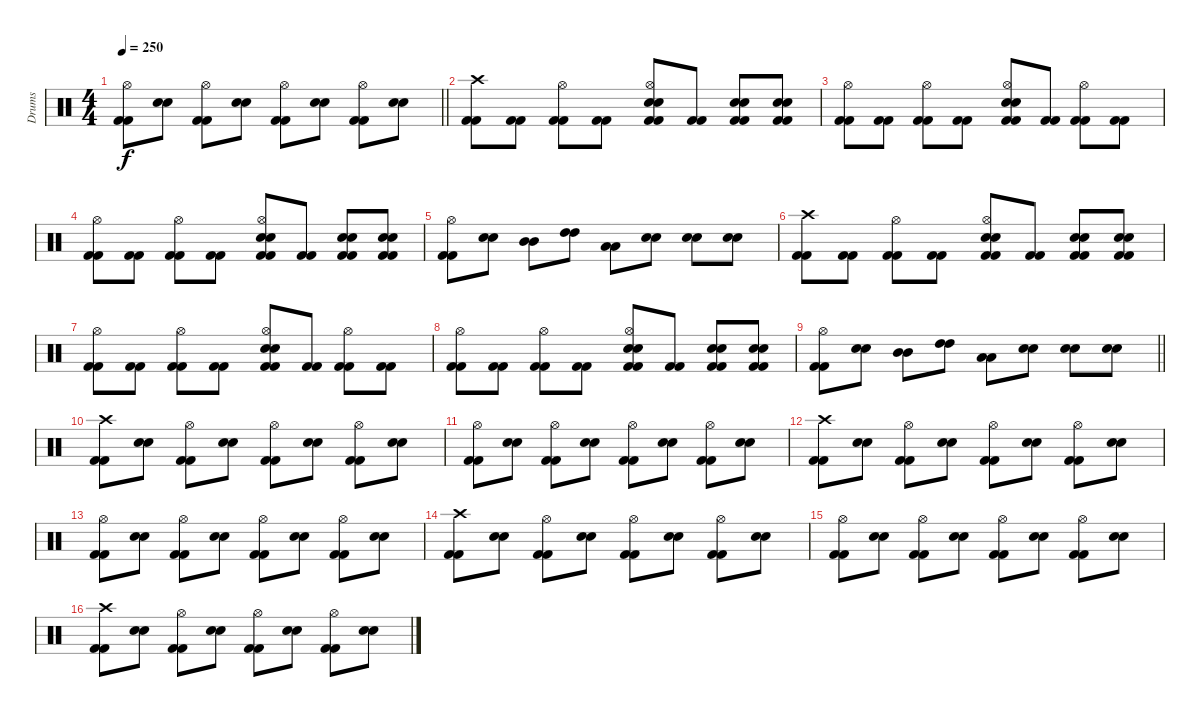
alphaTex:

\track ("Drums" "Drums") {instrument percussion}
\staff {score}
\articulation defaults
\ts (4 4)
\tempo 250
\clef neutral
\barLineRight lightlight
\ks c
("Kick (hit) 2" "Kick (hit) 2" "Hi-Hat (open)").8{dy f} ("Electric Snare (hit)" "Electric Snare (hit)").8 ("Kick (hit) 2" "Kick (hit) 2" "Hi-Hat (open)").8 ("Electric Snare (hit)" "Electric Snare (hit)").8 ("Kick (hit) 2" "Kick (hit) 2" "Hi-Hat (open)").8 ("Electric Snare (hit)" "Electric Snare (hit)").8 ("Kick (hit) 2" "Kick (hit) 2" "Hi-Hat (open)").8 ("Electric Snare (hit)" "Electric Snare (hit)").8 |
("Kick (hit) 2" "Kick (hit) 2" "Crash high (hit)").8 ("Kick (hit) 2" "Kick (hit) 2").8 ("Kick (hit) 2" "Kick (hit) 2" "Hi-Hat (open)").8 ("Kick (hit) 2" "Kick (hit) 2").8 ("Kick (hit) 2" "Kick (hit) 2" "Electric Snare (hit)" "Electric Snare (hit)" "Hi-Hat (open)").8 ("Kick (hit) 2" "Kick (hit) 2").8 ("Kick (hit) 2" "Kick (hit) 2" "Electric Snare (hit)" "Electric Snare (hit)").8 ("Kick (hit) 2" "Kick (hit) 2" "Electric Snare (hit)" "Electric Snare (hit)").8 |
("Kick (hit) 2" "Kick (hit) 2" "Hi-Hat (open)").8 ("Kick (hit) 2" "Kick (hit) 2").8 ("Kick (hit) 2" "Kick (hit) 2" "Hi-Hat (open)").8 ("Kick (hit) 2" "Kick (hit) 2").8 ("Kick (hit) 2" "Kick (hit) 2" "Electric Snare (hit)" "Electric Snare (hit)" "Hi-Hat (open)").8 ("Kick (hit) 2" "Kick (hit) 2").8 ("Kick (hit) 2" "Kick (hit) 2" "Hi-Hat (open)").8 ("Kick (hit) 2" "Kick (hit) 2").8 |
("Kick (hit) 2" "Kick (hit) 2" "Hi-Hat (open)").8 ("Kick (hit) 2" "Kick (hit) 2").8 ("Kick (hit) 2" "Kick (hit) 2" "Hi-Hat (open)").8 ("Kick (hit) 2" "Kick (hit) 2").8 ("Kick (hit) 2" "Kick (hit) 2" "Electric Snare (hit)" "Electric Snare (hit)" "Hi-Hat (open)").8 ("Kick (hit) 2" "Kick (hit) 2").8 ("Kick (hit) 2" "Kick (hit) 2" "Electric Snare (hit)" "Electric Snare (hit)").8 ("Kick (hit) 2" "Kick (hit) 2" "Electric Snare (hit)" "Electric Snare (hit)").8 |
("Kick (hit) 2" "Kick (hit) 2" "Hi-Hat (open)").8 ("Electric Snare (hit)" "Electric Snare (hit)").8 ("Mid Tom (hit)" "Mid Tom (hit)").8 ("High Tom (hit)" "High Tom (hit)").8 ("Low Floor Tom (hit)" "Low Floor Tom (hit)").8 ("Electric Snare (hit)" "Electric Snare (hit)").8 ("Electric Snare (hit)" "Electric Snare (hit)").8 ("Electric Snare (hit)" "Electric Snare (hit)").8 |
("Kick (hit) 2" "Kick (hit) 2" "Crash high (hit)").8 ("Kick (hit) 2" "Kick (hit) 2").8 ("Kick (hit) 2" "Kick (hit) 2" "Hi-Hat (open)").8 ("Kick (hit) 2" "Kick (hit) 2").8 ("Kick (hit) 2" "Kick (hit) 2" "Electric Snare (hit)" "Electric Snare (hit)" "Hi-Hat (open)").8 ("Kick (hit) 2" "Kick (hit) 2").8 ("Kick (hit) 2" "Kick (hit) 2" "Electric Snare (hit)" "Electric Snare (hit)").8 ("Kick (hit) 2" "Kick (hit) 2" "Electric Snare (hit)" "Electric Snare (hit)").8 |
("Kick (hit) 2" "Kick (hit) 2" "Hi-Hat (open)").8 ("Kick (hit) 2" "Kick (hit) 2").8 ("Kick (hit) 2" "Kick (hit) 2" "Hi-Hat (open)").8 ("Kick (hit) 2" "Kick (hit) 2").8 ("Kick (hit) 2" "Kick (hit) 2" "Electric Snare (hit)" "Electric Snare (hit)" "Hi-Hat (open)").8 ("Kick (hit) 2" "Kick (hit) 2").8 ("Kick (hit) 2" "Kick (hit) 2" "Hi-Hat (open)").8 ("Kick (hit) 2" "Kick (hit) 2").8 |
("Kick (hit) 2" "Kick (hit) 2" "Hi-Hat (open)").8 ("Kick (hit) 2" "Kick (hit) 2").8 ("Kick (hit) 2" "Kick (hit) 2" "Hi-Hat (open)").8 ("Kick (hit) 2" "Kick (hit) 2").8 ("Kick (hit) 2" "Kick (hit) 2" "Electric Snare (hit)" "Electric Snare (hit)" "Hi-Hat (open)").8 ("Kick (hit) 2" "Kick (hit) 2").8 ("Kick (hit) 2" "Kick (hit) 2" "Electric Snare (hit)" "Electric Snare (hit)").8 ("Kick (hit) 2" "Kick (hit) 2" "Electric Snare (hit)" "Electric Snare (hit)").8 |
\barLineRight lightlight
("Kick (hit) 2" "Kick (hit) 2" "Hi-Hat (open)").8 ("Electric Snare (hit)" "Electric Snare (hit)").8 ("Mid Tom (hit)" "Mid Tom (hit)").8 ("High Tom (hit)" "High Tom (hit)").8 ("Low Floor Tom (hit)" "Low Floor Tom (hit)").8 ("Electric Snare (hit)" "Electric Snare (hit)").8 ("Electric Snare (hit)" "Electric Snare (hit)").8 ("Electric Snare (hit)" "Electric Snare (hit)").8 |
("Kick (hit) 2" "Kick (hit) 2" "Crash high (hit)").8 ("Electric Snare (hit)" "Electric Snare (hit)").8 ("Kick (hit) 2" "Kick (hit) 2" "Hi-Hat (open)").8 ("Electric Snare (hit)" "Electric Snare (hit)").8 ("Kick (hit) 2" "Kick (hit) 2" "Hi-Hat (open)").8 ("Electric Snare (hit)" "Electric Snare (hit)").8 ("Kick (hit) 2" "Kick (hit) 2" "Hi-Hat (open)").8 ("Electric Snare (hit)" "Electric Snare (hit)").8 |
("Kick (hit) 2" "Kick (hit) 2" "Hi-Hat (open)").8 ("Electric Snare (hit)" "Electric Snare (hit)").8 ("Kick (hit) 2" "Kick (hit) 2" "Hi-Hat (open)").8 ("Electric Snare (hit)" "Electric Snare (hit)").8 ("Kick (hit) 2" "Kick (hit) 2" "Hi-Hat (open)").8 ("Electric Snare (hit)" "Electric Snare (hit)").8 ("Kick (hit) 2" "Kick (hit) 2" "Hi-Hat (open)").8 ("Electric Snare (hit)" "Electric Snare (hit)").8 |
("Kick (hit) 2" "Kick (hit) 2" "Crash high (hit)").8 ("Electric Snare (hit)" "Electric Snare (hit)").8 ("Kick (hit) 2" "Kick (hit) 2" "Hi-Hat (open)").8 ("Electric Snare (hit)" "Electric Snare (hit)").8 ("Kick (hit) 2" "Kick (hit) 2" "Hi-Hat (open)").8 ("Electric Snare (hit)" "Electric Snare (hit)").8 ("Kick (hit) 2" "Kick (hit) 2" "Hi-Hat (open)").8 ("Electric Snare (hit)" "Electric Snare (hit)").8 |
("Kick (hit) 2" "Kick (hit) 2" "Hi-Hat (open)").8 ("Electric Snare (hit)" "Electric Snare (hit)").8 ("Kick (hit) 2" "Kick (hit) 2" "Hi-Hat (open)").8 ("Electric Snare (hit)" "Electric Snare (hit)").8 ("Kick (hit) 2" "Kick (hit) 2" "Hi-Hat (open)").8 ("Electric Snare (hit)" "Electric Snare (hit)").8 ("Kick (hit) 2" "Kick (hit) 2" "Hi-Hat (open)").8 ("Electric Snare (hit)" "Electric Snare (hit)").8 |
("Kick (hit) 2" "Kick (hit) 2" "Crash high (hit)").8 ("Electric Snare (hit)" "Electric Snare (hit)").8 ("Kick (hit) 2" "Kick (hit) 2" "Hi-Hat (open)").8 ("Electric Snare (hit)" "Electric Snare (hit)").8 ("Kick (hit) 2" "Kick (hit) 2" "Hi-Hat (open)").8 ("Electric Snare (hit)" "Electric Snare (hit)").8 ("Kick (hit) 2" "Kick (hit) 2" "Hi-Hat (open)").8 ("Electric Snare (hit)" "Electric Snare (hit)").8 |
("Kick (hit) 2" "Kick (hit) 2" "Hi-Hat (open)").8 ("Electric Snare (hit)" "Electric Snare (hit)").8 ("Kick (hit) 2" "Kick (hit) 2" "Hi-Hat (open)").8 ("Electric Snare (hit)" "Electric Snare (hit)").8 ("Kick (hit) 2" "Kick (hit) 2" "Hi-Hat (open)").8 ("Electric Snare (hit)" "Electric Snare (hit)").8 ("Kick (hit) 2" "Kick (hit) 2" "Hi-Hat (open)").8 ("Electric Snare (hit)" "Electric Snare (hit)").8 |
("Kick (hit) 2" "Kick (hit) 2" "Crash high (hit)").8 ("Electric Snare (hit)" "Electric Snare (hit)").8 ("Kick (hit) 2" "Kick (hit) 2" "Hi-Hat (open)").8 ("Electric Snare (hit)" "Electric Snare (hit)").8 ("Kick (hit) 2" "Kick (hit) 2" "Hi-Hat (open)").8 ("Electric Snare (hit)" "Electric Snare (hit)").8 ("Kick (hit) 2" "Kick (hit) 2" "Hi-Hat (open)").8 ("Electric Snare (hit)" "Electric Snare (hit)").8
